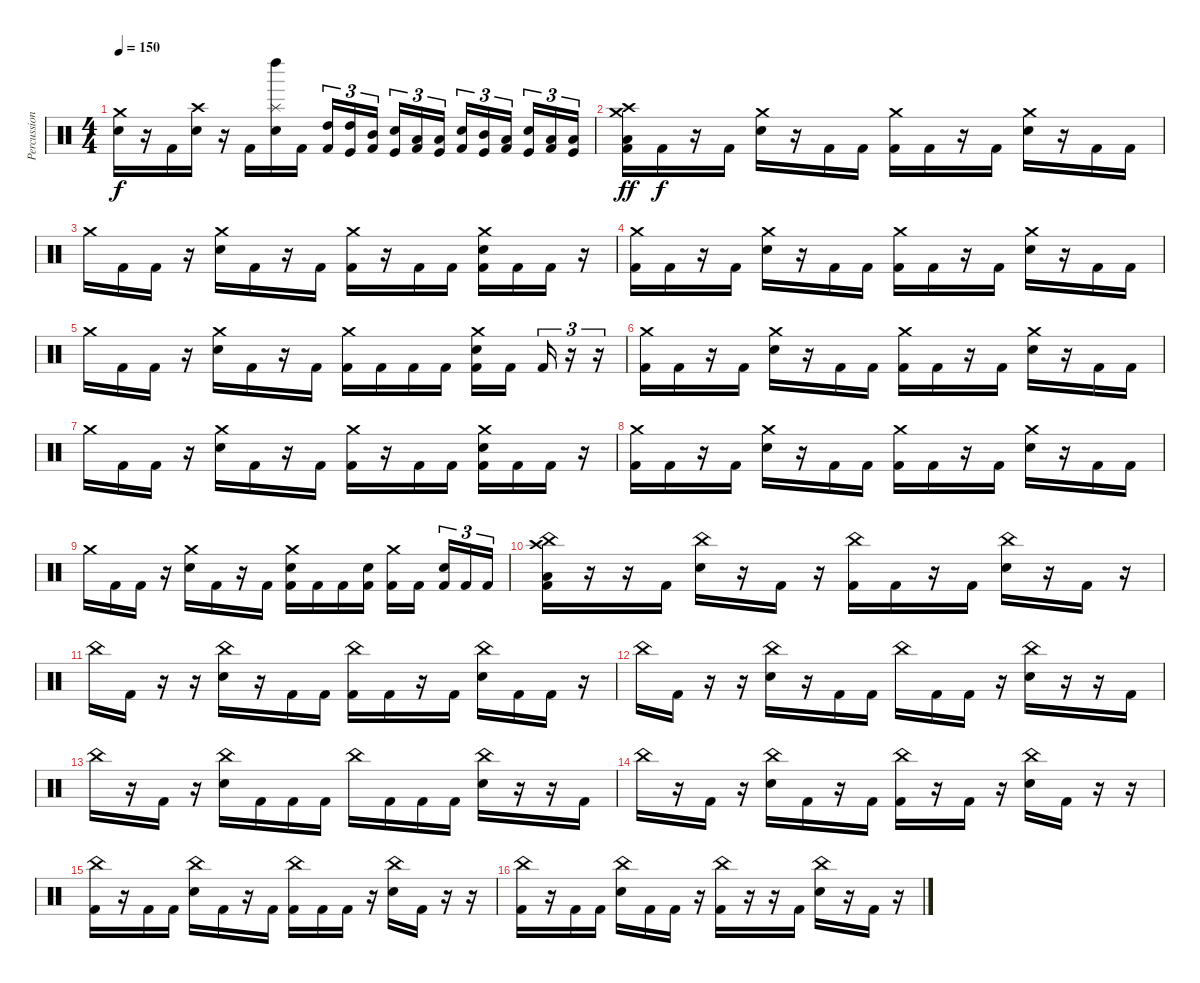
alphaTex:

\track ("Percussion" "Percussion") {instrument percussion}
\staff {score}
\articulation defaults
\ts (4 4)
\tempo 150
\clef neutral
\ks c
("Crash medium (hit)" "Electric Snare (hit)").16{dy f} r.16 "Kick (hit) 2".16 ("Crash high (hit)" "Electric Snare (hit)").16 r.16 "Kick (hit) 2".16 ("Left Maraca (hit)" "Splash (hit)" "Electric Snare (hit)").16 "Kick (hit) 2".16 ("High Tom (hit)" "Kick (hit) 2").16{tu (3 2)} ("High Tom (hit)" "Kick (hit)").16{tu (3 2)} ("Mid Tom (hit)" "Kick (hit) 2").16{tu (3 2)} ("Electric Snare (hit)" "Kick (hit)").16{tu (3 2)} ("Low Floor Tom (hit)" "Kick (hit) 2").16{tu (3 2)} ("Low Floor Tom (hit)" "Kick (hit)").16{tu (3 2)} ("Electric Snare (hit)" "Kick (hit) 2").16{tu (3 2)} ("Mid Tom (hit)" "Kick (hit)").16{tu (3 2)} ("Low Tom (hit)" "Kick (hit) 2").16{tu (3 2)} ("Electric Snare (hit)" "Kick (hit)").16{tu (3 2)} ("Low Floor Tom (hit)" "Kick (hit) 2").16{tu (3 2)} ("Low Floor Tom (hit)" "Kick (hit)").16{tu (3 2)} |
("Crash medium (hit)" "Crash high (hit)" "Low Floor Tom (hit)" "Kick (hit) 2").16{dy ff} "Kick (hit) 2".16{dy f} r.16 "Kick (hit) 2".16 ("Crash medium (hit)" "Electric Snare (hit)").16 r.16 "Kick (hit) 2".16 "Kick (hit) 2".16 ("Crash medium (hit)" "Kick (hit) 2").16 "Kick (hit) 2".16 r.16 "Kick (hit) 2".16 ("Crash medium (hit)" "Electric Snare (hit)").16 r.16 "Kick (hit) 2".16 "Kick (hit) 2".16 |
"Crash medium (hit)".16 "Kick (hit) 2".16 "Kick (hit) 2".16 r.16 ("Crash medium (hit)" "Electric Snare (hit)").16 "Kick (hit) 2".16 r.16 "Kick (hit) 2".16 ("Crash medium (hit)" "Kick (hit) 2").16 r.16 "Kick (hit) 2".16 "Kick (hit) 2".16 ("Crash medium (hit)" "Electric Snare (hit)" "Kick (hit) 2").16 "Kick (hit) 2".16 "Kick (hit) 2".16 r.16 |
("Crash medium (hit)" "Kick (hit) 2").16 "Kick (hit) 2".16 r.16 "Kick (hit) 2".16 ("Crash medium (hit)" "Electric Snare (hit)").16 r.16 "Kick (hit) 2".16 "Kick (hit) 2".16 ("Crash medium (hit)" "Kick (hit) 2").16 "Kick (hit) 2".16 r.16 "Kick (hit) 2".16 ("Crash medium (hit)" "Electric Snare (hit)").16 r.16 "Kick (hit) 2".16 "Kick (hit) 2".16 |
"Crash medium (hit)".16 "Kick (hit) 2".16 "Kick (hit) 2".16 r.16 ("Crash medium (hit)" "Electric Snare (hit)").16 "Kick (hit) 2".16 r.16 "Kick (hit) 2".16 ("Crash medium (hit)" "Kick (hit) 2").16 "Kick (hit) 2".16 "Kick (hit) 2".16 "Kick (hit) 2".16 ("Crash medium (hit)" "Electric Snare (hit)" "Kick (hit) 2").16 "Kick (hit) 2".16 "Kick (hit) 2".16{tu (3 2)} r.16{tu (3 2)} r.16{tu (3 2)} |
("Crash medium (hit)" "Kick (hit) 2").16 "Kick (hit) 2".16 r.16 "Kick (hit) 2".16 ("Crash medium (hit)" "Electric Snare (hit)").16 r.16 "Kick (hit) 2".16 "Kick (hit) 2".16 ("Crash medium (hit)" "Kick (hit) 2").16 "Kick (hit) 2".16 r.16 "Kick (hit) 2".16 ("Crash medium (hit)" "Electric Snare (hit)").16 r.16 "Kick (hit) 2".16 "Kick (hit) 2".16 |
"Crash medium (hit)".16 "Kick (hit) 2".16 "Kick (hit) 2".16 r.16 ("Crash medium (hit)" "Electric Snare (hit)").16 "Kick (hit) 2".16 r.16 "Kick (hit) 2".16 ("Crash medium (hit)" "Kick (hit) 2").16 r.16 "Kick (hit) 2".16 "Kick (hit) 2".16 ("Crash medium (hit)" "Electric Snare (hit)" "Kick (hit) 2").16 "Kick (hit) 2".16 "Kick (hit) 2".16 r.16 |
("Crash medium (hit)" "Kick (hit) 2").16 "Kick (hit) 2".16 r.16 "Kick (hit) 2".16 ("Crash medium (hit)" "Electric Snare (hit)").16 r.16 "Kick (hit) 2".16 "Kick (hit) 2".16 ("Crash medium (hit)" "Kick (hit) 2").16 "Kick (hit) 2".16 r.16 "Kick (hit) 2".16 ("Crash medium (hit)" "Electric Snare (hit)").16 r.16 "Kick (hit) 2".16 "Kick (hit) 2".16 |
"Crash medium (hit)".16 "Kick (hit) 2".16 "Kick (hit) 2".16 r.16 ("Crash medium (hit)" "Electric Snare (hit)").16 "Kick (hit) 2".16 r.16 "Kick (hit) 2".16 ("Crash medium (hit)" "Electric Snare (hit)" "Kick (hit) 2").16 "Kick (hit) 2".16 "Kick (hit) 2".16 ("Electric Snare (hit)" "Kick (hit) 2").16 ("Crash medium (hit)" "Kick (hit) 2").16 "Kick (hit) 2".16 ("Electric Snare (hit)" "Kick (hit) 2").16{tu (3 2)} "Kick (hit) 2".16{tu (3 2)} "Kick (hit) 2".16{tu (3 2)} |
("China (hit)" "Crash high (hit)" "Low Floor Tom (hit)" "Kick (hit) 2").16 r.16 r.16 "Kick (hit) 2".16 ("China (hit)" "Electric Snare (hit)").16 r.16 "Kick (hit) 2".16 r.16 ("China (hit)" "Kick (hit) 2").16 "Kick (hit) 2".16 r.16 "Kick (hit) 2".16 ("China (hit)" "Electric Snare (hit)").16 r.16 "Kick (hit) 2".16 r.16 |
"China (hit)".16 "Kick (hit) 2".16 r.16 r.16 ("China (hit)" "Electric Snare (hit)").16 r.16 "Kick (hit) 2".16 "Kick (hit) 2".16 ("China (hit)" "Kick (hit) 2").16 "Kick (hit) 2".16 r.16 "Kick (hit) 2".16 ("China (hit)" "Electric Snare (hit)").16 "Kick (hit) 2".16 "Kick (hit) 2".16 r.16 |
"China (hit)".16 "Kick (hit) 2".16 r.16 r.16 ("China (hit)" "Electric Snare (hit)").16 r.16 "Kick (hit) 2".16 "Kick (hit) 2".16 "China (hit)".16 "Kick (hit) 2".16 "Kick (hit) 2".16 r.16 ("China (hit)" "Electric Snare (hit)").16 r.16 r.16 "Kick (hit) 2".16 |
"China (hit)".16 r.16 "Kick (hit) 2".16 r.16 ("China (hit)" "Electric Snare (hit)").16 "Kick (hit) 2".16 "Kick (hit) 2".16 "Kick (hit) 2".16 "China (hit)".16 "Kick (hit) 2".16 "Kick (hit) 2".16 "Kick (hit) 2".16 ("China (hit)" "Electric Snare (hit)").16 r.16 r.16 "Kick (hit) 2".16 |
"China (hit)".16 r.16 "Kick (hit) 2".16 r.16 ("China (hit)" "Electric Snare (hit)").16 "Kick (hit) 2".16 r.16 "Kick (hit) 2".16 ("China (hit)" "Kick (hit) 2").16 r.16 "Kick (hit) 2".16 r.16 ("China (hit)" "Electric Snare (hit)").16 "Kick (hit) 2".16 r.16 r.16 |
("China (hit)" "Kick (hit) 2").16 r.16 "Kick (hit) 2".16 "Kick (hit) 2".16 ("China (hit)" "Electric Snare (hit)").16 "Kick (hit) 2".16 r.16 "Kick (hit) 2".16 ("China (hit)" "Kick (hit) 2").16 "Kick (hit) 2".16 "Kick (hit) 2".16 r.16 ("China (hit)" "Electric Snare (hit)").16 "Kick (hit) 2".16 r.16 r.16 |
("China (hit)" "Kick (hit) 2").16 r.16 "Kick (hit) 2".16 "Kick (hit) 2".16 ("China (hit)" "Electric Snare (hit)").16 "Kick (hit) 2".16 "Kick (hit) 2".16 r.16 ("China (hit)" "Kick (hit) 2").16 r.16 r.16 "Kick (hit) 2".16 ("China (hit)" "Electric Snare (hit)").16 r.16 "Kick (hit) 2".16 r.16
